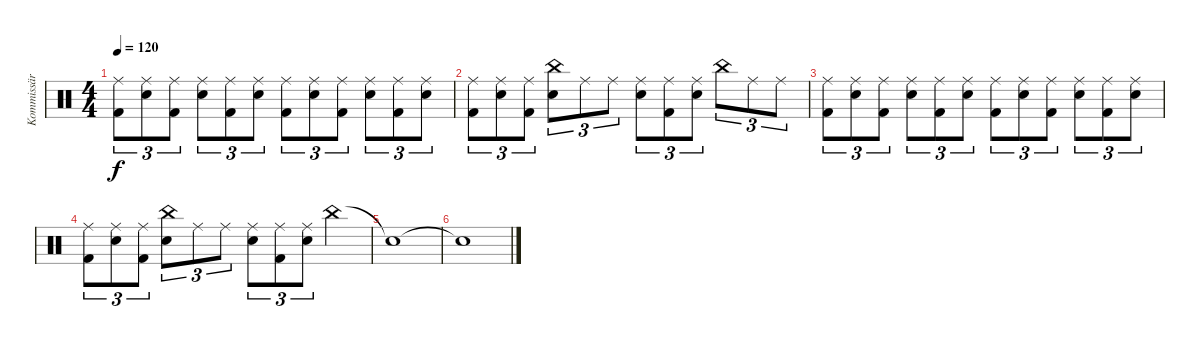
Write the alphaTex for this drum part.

\track ("Kommissär Ogrim" "Kommissär ") {instrument percussion}
\staff {score}
\articulation defaults
\ts (4 4)
\tempo 120
\clef neutral
\ks c
("Ride (middle)" "Kick (hit) 2").8{tu (3 2) dy f} ("Snare (hit) 2" "Ride (middle)").8{tu (3 2)} ("Ride (middle)" "Kick (hit) 2").8{tu (3 2)} ("Snare (hit) 2" "Ride (middle)").8{tu (3 2)} ("Ride (middle)" "Kick (hit) 2").8{tu (3 2)} ("Snare (hit) 2" "Ride (middle)").8{tu (3 2)} ("Ride (middle)" "Kick (hit) 2").8{tu (3 2)} ("Snare (hit) 2" "Ride (middle)").8{tu (3 2)} ("Ride (middle)" "Kick (hit) 2").8{tu (3 2)} ("Snare (hit) 2" "Ride (middle)").8{tu (3 2)} ("Ride (middle)" "Kick (hit) 2").8{tu (3 2)} ("Snare (hit) 2" "Ride (middle)").8{tu (3 2)} |
("Ride (middle)" "Kick (hit) 2").8{tu (3 2)} ("Snare (hit) 2" "Ride (middle)").8{tu (3 2)} ("Ride (middle)" "Kick (hit) 2").8{tu (3 2)} ("Snare (hit) 2" "China (hit)").8{tu (3 2)} "Ride (middle)".8{tu (3 2)} "Ride (middle)".8{tu (3 2)} ("Snare (hit) 2" "Ride (middle)").8{tu (3 2)} ("Ride (middle)" "Kick (hit) 2").8{tu (3 2)} ("Snare (hit) 2" "Ride (middle)").8{tu (3 2)} "China (hit)".8{tu (3 2)} "Ride (middle)".8{tu (3 2)} "Ride (middle)".8{tu (3 2)} |
("Ride (middle)" "Kick (hit) 2").8{tu (3 2)} ("Snare (hit) 2" "Ride (middle)").8{tu (3 2)} ("Ride (middle)" "Kick (hit) 2").8{tu (3 2)} ("Snare (hit) 2" "Ride (middle)").8{tu (3 2)} ("Ride (middle)" "Kick (hit) 2").8{tu (3 2)} ("Snare (hit) 2" "Ride (middle)").8{tu (3 2)} ("Ride (middle)" "Kick (hit) 2").8{tu (3 2)} ("Snare (hit) 2" "Ride (middle)").8{tu (3 2)} ("Ride (middle)" "Kick (hit) 2").8{tu (3 2)} ("Snare (hit) 2" "Ride (middle)").8{tu (3 2)} ("Ride (middle)" "Kick (hit) 2").8{tu (3 2)} ("Snare (hit) 2" "Ride (middle)").8{tu (3 2)} |
("Ride (middle)" "Kick (hit) 2").8{tu (3 2)} ("Snare (hit) 2" "Ride (middle)").8{tu (3 2)} ("Ride (middle)" "Kick (hit) 2").8{tu (3 2)} ("Snare (hit) 2" "China (hit)").8{tu (3 2)} "Ride (middle)".8{tu (3 2)} "Ride (middle)".8{tu (3 2)} ("Snare (hit) 2" "Ride (middle)").8{tu (3 2)} ("Ride (middle)" "Kick (hit) 2").8{tu (3 2)} ("Snare (hit) 2" "Ride (middle)").8{tu (3 2)} "China (hit)".4 |
"Snare (hit)"{t}.1 |
"Snare (hit)"{t}.1
